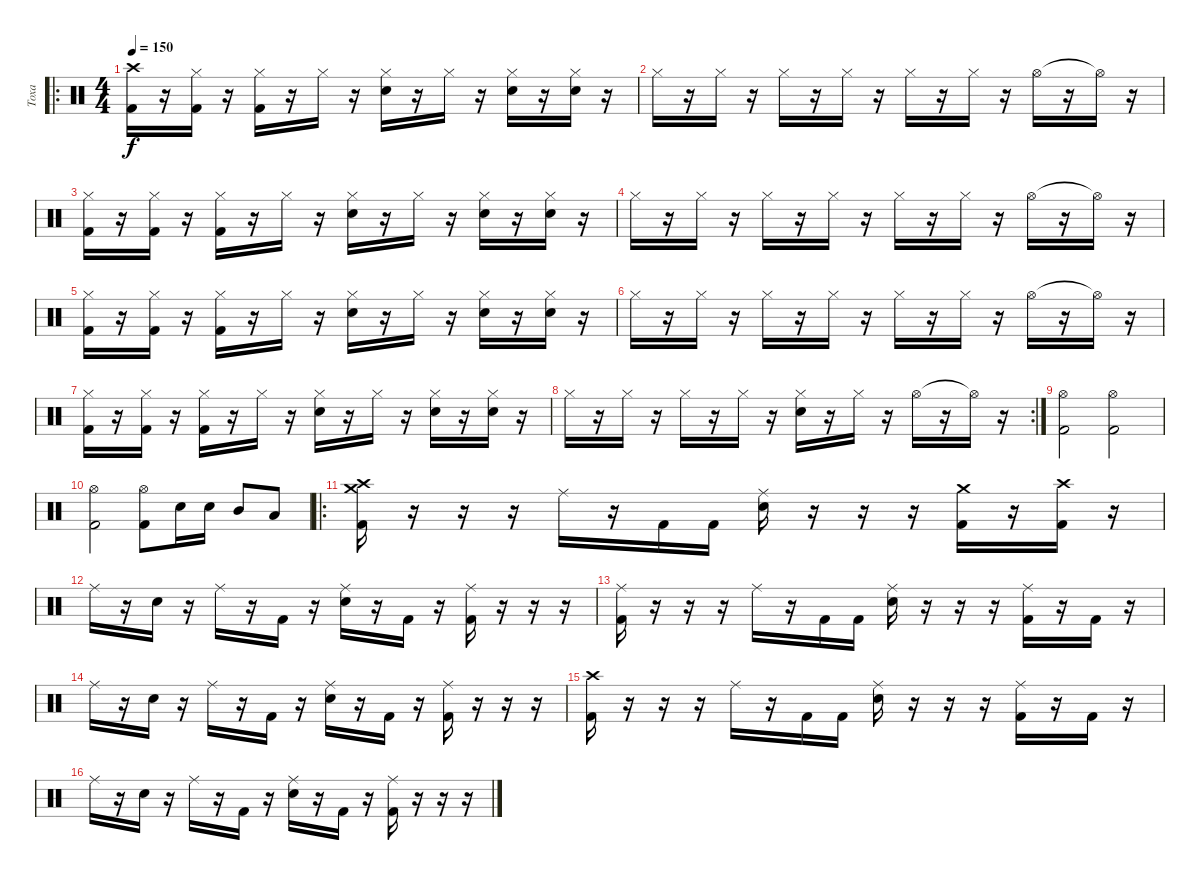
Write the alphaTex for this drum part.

\track ("Тоха" "Тоха") {instrument percussion}
\staff {score}
\articulation defaults
\ro
\ts (4 4)
\tempo 150
\clef neutral
\ks c
("Crash high (hit)" "Kick (hit) 2").16{dy f} r.16 ("Hi-Hat (closed)" "Kick (hit) 2").16 r.16 ("Hi-Hat (closed)" "Kick (hit) 2").16 r.16 "Hi-Hat (closed)".16 r.16 ("Hi-Hat (closed)" "Electric Snare (hit)").16 r.16 "Hi-Hat (closed)".16 r.16 ("Hi-Hat (closed)" "Electric Snare (hit)").16 r.16 ("Hi-Hat (closed)" "Electric Snare (hit)").16 r.16 |
"Hi-Hat (closed)".16 r.16 "Hi-Hat (closed)".16 r.16 "Hi-Hat (closed)".16 r.16 "Hi-Hat (closed)".16 r.16 "Hi-Hat (closed)".16 r.16 "Hi-Hat (closed)".16 r.16 "Hi-Hat (open)".16 r.16 "Hi-Hat (open)"{t}.16 r.16 |
("Hi-Hat (closed)" "Kick (hit) 2").16 r.16 ("Hi-Hat (closed)" "Kick (hit) 2").16 r.16 ("Hi-Hat (closed)" "Kick (hit) 2").16 r.16 "Hi-Hat (closed)".16 r.16 ("Hi-Hat (closed)" "Electric Snare (hit)").16 r.16 "Hi-Hat (closed)".16 r.16 ("Hi-Hat (closed)" "Electric Snare (hit)").16 r.16 ("Hi-Hat (closed)" "Electric Snare (hit)").16 r.16 |
"Hi-Hat (closed)".16 r.16 "Hi-Hat (closed)".16 r.16 "Hi-Hat (closed)".16 r.16 "Hi-Hat (closed)".16 r.16 "Hi-Hat (closed)".16 r.16 "Hi-Hat (closed)".16 r.16 "Hi-Hat (open)".16 r.16 "Hi-Hat (open)"{t}.16 r.16 |
("Hi-Hat (closed)" "Kick (hit) 2").16 r.16 ("Hi-Hat (closed)" "Kick (hit) 2").16 r.16 ("Hi-Hat (closed)" "Kick (hit) 2").16 r.16 "Hi-Hat (closed)".16 r.16 ("Hi-Hat (closed)" "Electric Snare (hit)").16 r.16 "Hi-Hat (closed)".16 r.16 ("Hi-Hat (closed)" "Electric Snare (hit)").16 r.16 ("Hi-Hat (closed)" "Electric Snare (hit)").16 r.16 |
"Hi-Hat (closed)".16 r.16 "Hi-Hat (closed)".16 r.16 "Hi-Hat (closed)".16 r.16 "Hi-Hat (closed)".16 r.16 "Hi-Hat (closed)".16 r.16 "Hi-Hat (closed)".16 r.16 "Hi-Hat (open)".16 r.16 "Hi-Hat (open)"{t}.16 r.16 |
("Hi-Hat (closed)" "Kick (hit) 2").16 r.16 ("Hi-Hat (closed)" "Kick (hit) 2").16 r.16 ("Hi-Hat (closed)" "Kick (hit) 2").16 r.16 "Hi-Hat (closed)".16 r.16 ("Hi-Hat (closed)" "Electric Snare (hit)").16 r.16 "Hi-Hat (closed)".16 r.16 ("Hi-Hat (closed)" "Electric Snare (hit)").16 r.16 ("Hi-Hat (closed)" "Electric Snare (hit)").16 r.16 |
\rc 2 "Hi-Hat (closed)".16
r.16 "Hi-Hat (closed)".16 r.16 "Hi-Hat (closed)".16 r.16 "Hi-Hat (closed)".16 r.16 ("Hi-Hat (closed)" "Electric Snare (hit)").16 r.16 "Hi-Hat (closed)".16 r.16 "Hi-Hat (open)".16 r.16 "Hi-Hat (open)"{t}.16 r.16 |
("Hi-Hat (open)" "Kick (hit) 2").2 ("Hi-Hat (open)" "Kick (hit) 2").2 |
("Hi-Hat (open)" "Kick (hit) 2").2 ("Hi-Hat (open)" "Kick (hit) 2").8 "Electric Snare (hit)".16 "Electric Snare (hit)".16 "Mid Tom (hit)".8 "Low Tom (hit)".8 |
\ro
("Crash high (hit)" "Crash medium (hit)" "Kick (hit) 2").16 r.16 r.16 r.16 "Ride (middle)".16 r.16 "Kick (hit) 2".16 "Kick (hit) 2".16 ("Ride (middle)" "Electric Snare (hit)").16 r.16 r.16 r.16 ("Crash medium (hit)" "Kick (hit) 2").16 r.16 ("Crash high (hit)" "Kick (hit) 2").16 r.16 |
"Ride (middle)".16 r.16 "Electric Snare (hit)".16 r.16 "Ride (middle)".16 r.16 "Kick (hit) 2".16 r.16 ("Ride (middle)" "Electric Snare (hit)").16 r.16 "Kick (hit) 2".16 r.16 ("Ride (middle)" "Kick (hit) 2").16 r.16 r.16 r.16 |
("Ride (middle)" "Kick (hit) 2").16 r.16 r.16 r.16 "Ride (middle)".16 r.16 "Kick (hit) 2".16 "Kick (hit) 2".16 ("Ride (middle)" "Electric Snare (hit)").16 r.16 r.16 r.16 ("Ride (middle)" "Kick (hit) 2").16 r.16 "Kick (hit) 2".16 r.16 |
"Ride (middle)".16 r.16 "Electric Snare (hit)".16 r.16 "Ride (middle)".16 r.16 "Kick (hit) 2".16 r.16 ("Ride (middle)" "Electric Snare (hit)").16 r.16 "Kick (hit) 2".16 r.16 ("Ride (middle)" "Kick (hit) 2").16 r.16 r.16 r.16 |
("Crash high (hit)" "Kick (hit) 2").16 r.16 r.16 r.16 "Ride (middle)".16 r.16 "Kick (hit) 2".16 "Kick (hit) 2".16 ("Ride (middle)" "Electric Snare (hit)").16 r.16 r.16 r.16 ("Ride (middle)" "Kick (hit) 2").16 r.16 "Kick (hit) 2".16 r.16 |
"Ride (middle)".16 r.16 "Electric Snare (hit)".16 r.16 "Ride (middle)".16 r.16 "Kick (hit) 2".16 r.16 ("Ride (middle)" "Electric Snare (hit)").16 r.16 "Kick (hit) 2".16 r.16 ("Ride (middle)" "Kick (hit) 2").16 r.16 r.16 r.16
